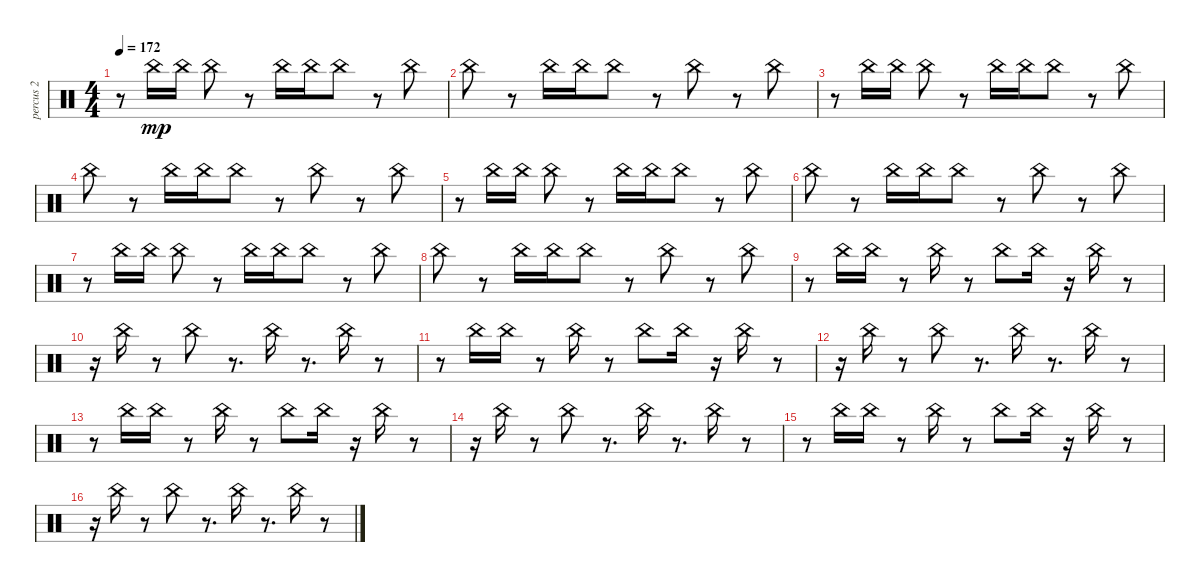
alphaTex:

\track ("percus 2" "percus 2") {instrument percussion}
\staff {score}
\articulation defaults
\ts (4 4)
\tempo 172
\clef neutral
\ks c
r.8{dy mp} "China (hit)".16 "China (hit)".16 "China (hit)".8 r.8 "China (hit)".16 "China (hit)".16 "China (hit)".8 r.8 "China (hit)".8 |
"China (hit)".8 r.8 "China (hit)".16 "China (hit)".16 "China (hit)".8 r.8 "China (hit)".8 r.8 "China (hit)".8 |
r.8 "China (hit)".16 "China (hit)".16 "China (hit)".8 r.8 "China (hit)".16 "China (hit)".16 "China (hit)".8 r.8 "China (hit)".8 |
"China (hit)".8 r.8 "China (hit)".16 "China (hit)".16 "China (hit)".8 r.8 "China (hit)".8 r.8 "China (hit)".8 |
r.8 "China (hit)".16 "China (hit)".16 "China (hit)".8 r.8 "China (hit)".16 "China (hit)".16 "China (hit)".8 r.8 "China (hit)".8 |
"China (hit)".8 r.8 "China (hit)".16 "China (hit)".16 "China (hit)".8 r.8 "China (hit)".8 r.8 "China (hit)".8 |
r.8 "China (hit)".16 "China (hit)".16 "China (hit)".8 r.8 "China (hit)".16 "China (hit)".16 "China (hit)".8 r.8 "China (hit)".8 |
"China (hit)".8 r.8 "China (hit)".16 "China (hit)".16 "China (hit)".8 r.8 "China (hit)".8 r.8 "China (hit)".8 |
r.8 "China (hit)".16 "China (hit)".16 r.8 "China (hit)".16 r.8 "China (hit)".8 "China (hit)".16 r.16 "China (hit)".16 r.8 |
r.16 "China (hit)".16 r.8 "China (hit)".8 r.8{d} "China (hit)".16 r.8{d} "China (hit)".16 r.8 |
r.8 "China (hit)".16 "China (hit)".16 r.8 "China (hit)".16 r.8 "China (hit)".8 "China (hit)".16 r.16 "China (hit)".16 r.8 |
r.16 "China (hit)".16 r.8 "China (hit)".8 r.8{d} "China (hit)".16 r.8{d} "China (hit)".16 r.8 |
r.8 "China (hit)".16 "China (hit)".16 r.8 "China (hit)".16 r.8 "China (hit)".8 "China (hit)".16 r.16 "China (hit)".16 r.8 |
r.16 "China (hit)".16 r.8 "China (hit)".8 r.8{d} "China (hit)".16 r.8{d} "China (hit)".16 r.8 |
r.8 "China (hit)".16 "China (hit)".16 r.8 "China (hit)".16 r.8 "China (hit)".8 "China (hit)".16 r.16 "China (hit)".16 r.8 |
r.16 "China (hit)".16 r.8 "China (hit)".8 r.8{d} "China (hit)".16 r.8{d} "China (hit)".16 r.8
